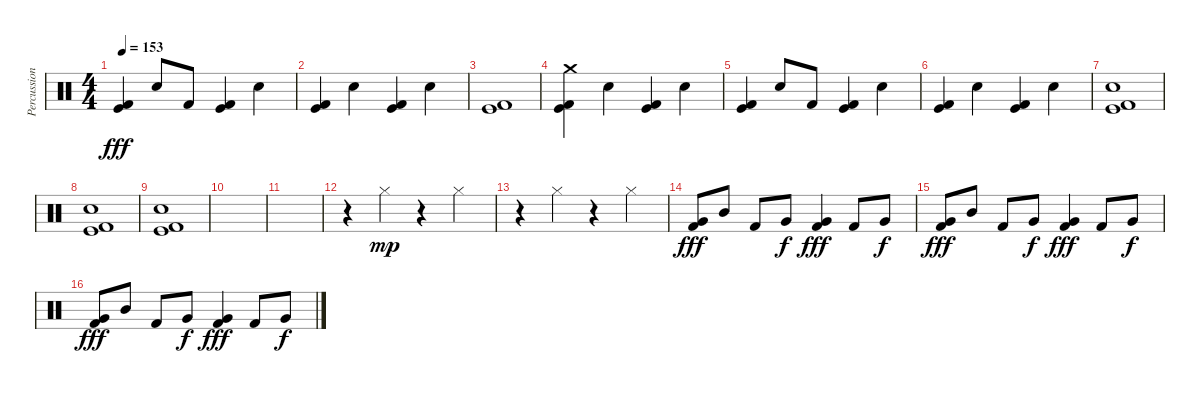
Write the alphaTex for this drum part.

\track ("Percussion" "Percussion") {instrument percussion}
\staff {score}
\articulation defaults
\ts (4 4)
\tempo 153
\clef neutral
\ks c
("Kick (hit)" "Kick (hit) 2").4{dy fff} "Snare (hit) 2".8 "Kick (hit) 2".8 ("Kick (hit)" "Kick (hit) 2").4 "Snare (hit) 2".4 |
("Kick (hit)" "Kick (hit) 2").4 "Snare (hit) 2".4 ("Kick (hit)" "Kick (hit) 2").4 "Snare (hit) 2".4 |
("Kick (hit)" "Kick (hit) 2").1 |
("Crash medium (hit)" "Kick (hit)" "Kick (hit) 2").4 "Snare (hit) 2".4 ("Kick (hit)" "Kick (hit) 2").4 "Snare (hit) 2".4 |
("Kick (hit)" "Kick (hit) 2").4 "Snare (hit) 2".8 "Kick (hit) 2".8 ("Kick (hit)" "Kick (hit) 2").4 "Snare (hit) 2".4 |
("Kick (hit)" "Kick (hit) 2").4 "Snare (hit) 2".4 ("Kick (hit)" "Kick (hit) 2").4 "Snare (hit) 2".4 |
("Snare (hit) 2" "Kick (hit)" "Kick (hit) 2").1 |
("Snare (hit) 2" "Kick (hit)" "Kick (hit) 2").1 |
("Snare (hit) 2" "Kick (hit)" "Kick (hit) 2").1 |
|
|
r.4 "Hi-Hat (closed)".4{dy mp} r.4 "Hi-Hat (closed)".4 |
r.4 "Hi-Hat (closed)".4 r.4 "Hi-Hat (closed)".4 |
("Very Low Tom (hit)" "Kick (hit) 2").8{dy fff} "Mid Tom (hit)".8 "Kick (hit) 2".8 "Very Low Tom (hit)".8{dy f} ("Very Low Tom (hit)" "Kick (hit) 2").4{dy fff} "Kick (hit) 2".8 "Very Low Tom (hit)".8{dy f} |
("Very Low Tom (hit)" "Kick (hit) 2").8{dy fff} "Mid Tom (hit)".8 "Kick (hit) 2".8 "Very Low Tom (hit)".8{dy f} ("Very Low Tom (hit)" "Kick (hit) 2").4{dy fff} "Kick (hit) 2".8 "Very Low Tom (hit)".8{dy f} |
("Very Low Tom (hit)" "Kick (hit) 2").8{dy fff} "Mid Tom (hit)".8 "Kick (hit) 2".8 "Very Low Tom (hit)".8{dy f} ("Very Low Tom (hit)" "Kick (hit) 2").4{dy fff} "Kick (hit) 2".8 "Very Low Tom (hit)".8{dy f}
